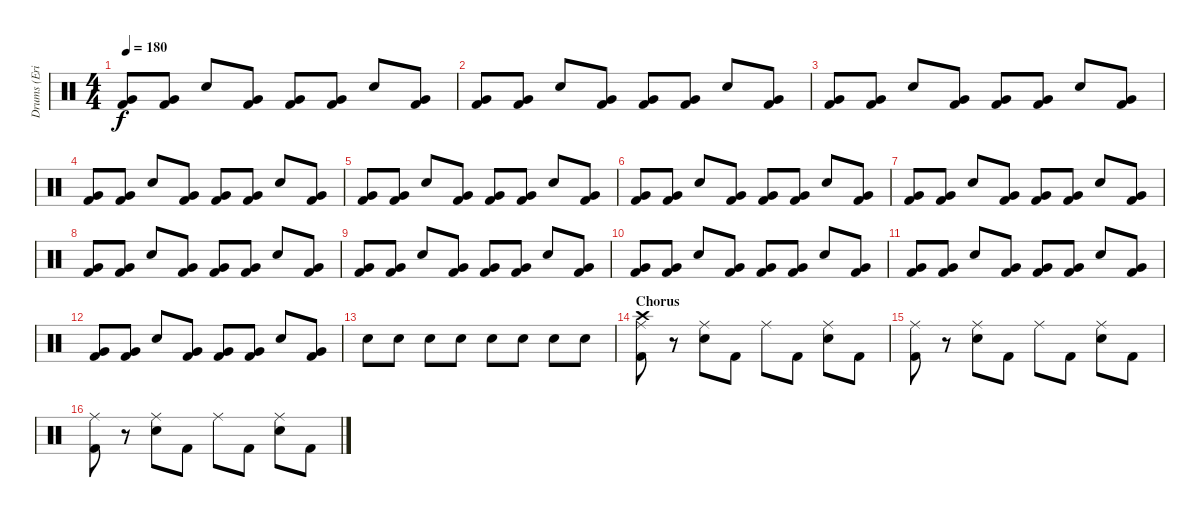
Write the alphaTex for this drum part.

\track ("Drums (Eric Young)" "Drums (Eri") {instrument percussion}
\staff {score}
\articulation defaults
\ts (4 4)
\tempo 180
\clef neutral
\ks c
("Very Low Tom (hit)" "Kick (hit) 2").8{dy f} ("Very Low Tom (hit)" "Kick (hit) 2").8 "Snare (hit) 2".8 ("Very Low Tom (hit)" "Kick (hit) 2").8 ("Very Low Tom (hit)" "Kick (hit) 2").8 ("Very Low Tom (hit)" "Kick (hit) 2").8 "Snare (hit) 2".8 ("Very Low Tom (hit)" "Kick (hit) 2").8 |
("Very Low Tom (hit)" "Kick (hit) 2").8 ("Very Low Tom (hit)" "Kick (hit) 2").8 "Snare (hit) 2".8 ("Very Low Tom (hit)" "Kick (hit) 2").8 ("Very Low Tom (hit)" "Kick (hit) 2").8 ("Very Low Tom (hit)" "Kick (hit) 2").8 "Snare (hit) 2".8 ("Very Low Tom (hit)" "Kick (hit) 2").8 |
("Very Low Tom (hit)" "Kick (hit) 2").8 ("Very Low Tom (hit)" "Kick (hit) 2").8 "Snare (hit) 2".8 ("Very Low Tom (hit)" "Kick (hit) 2").8 ("Very Low Tom (hit)" "Kick (hit) 2").8 ("Very Low Tom (hit)" "Kick (hit) 2").8 "Snare (hit) 2".8 ("Very Low Tom (hit)" "Kick (hit) 2").8 |
("Very Low Tom (hit)" "Kick (hit) 2").8 ("Very Low Tom (hit)" "Kick (hit) 2").8 "Snare (hit) 2".8 ("Very Low Tom (hit)" "Kick (hit) 2").8 ("Very Low Tom (hit)" "Kick (hit) 2").8 ("Very Low Tom (hit)" "Kick (hit) 2").8 "Snare (hit) 2".8 ("Very Low Tom (hit)" "Kick (hit) 2").8 |
("Very Low Tom (hit)" "Kick (hit) 2").8 ("Very Low Tom (hit)" "Kick (hit) 2").8 "Snare (hit) 2".8 ("Very Low Tom (hit)" "Kick (hit) 2").8 ("Very Low Tom (hit)" "Kick (hit) 2").8 ("Very Low Tom (hit)" "Kick (hit) 2").8 "Snare (hit) 2".8 ("Very Low Tom (hit)" "Kick (hit) 2").8 |
("Very Low Tom (hit)" "Kick (hit) 2").8 ("Very Low Tom (hit)" "Kick (hit) 2").8 "Snare (hit) 2".8 ("Very Low Tom (hit)" "Kick (hit) 2").8 ("Very Low Tom (hit)" "Kick (hit) 2").8 ("Very Low Tom (hit)" "Kick (hit) 2").8 "Snare (hit) 2".8 ("Very Low Tom (hit)" "Kick (hit) 2").8 |
("Very Low Tom (hit)" "Kick (hit) 2").8 ("Very Low Tom (hit)" "Kick (hit) 2").8 "Snare (hit) 2".8 ("Very Low Tom (hit)" "Kick (hit) 2").8 ("Very Low Tom (hit)" "Kick (hit) 2").8 ("Very Low Tom (hit)" "Kick (hit) 2").8 "Snare (hit) 2".8 ("Very Low Tom (hit)" "Kick (hit) 2").8 |
("Very Low Tom (hit)" "Kick (hit) 2").8 ("Very Low Tom (hit)" "Kick (hit) 2").8 "Snare (hit) 2".8 ("Very Low Tom (hit)" "Kick (hit) 2").8 ("Very Low Tom (hit)" "Kick (hit) 2").8 ("Very Low Tom (hit)" "Kick (hit) 2").8 "Snare (hit) 2".8 ("Very Low Tom (hit)" "Kick (hit) 2").8 |
("Very Low Tom (hit)" "Kick (hit) 2").8 ("Very Low Tom (hit)" "Kick (hit) 2").8 "Snare (hit) 2".8 ("Very Low Tom (hit)" "Kick (hit) 2").8 ("Very Low Tom (hit)" "Kick (hit) 2").8 ("Very Low Tom (hit)" "Kick (hit) 2").8 "Snare (hit) 2".8 ("Very Low Tom (hit)" "Kick (hit) 2").8 |
("Very Low Tom (hit)" "Kick (hit) 2").8 ("Very Low Tom (hit)" "Kick (hit) 2").8 "Snare (hit) 2".8 ("Very Low Tom (hit)" "Kick (hit) 2").8 ("Very Low Tom (hit)" "Kick (hit) 2").8 ("Very Low Tom (hit)" "Kick (hit) 2").8 "Snare (hit) 2".8 ("Very Low Tom (hit)" "Kick (hit) 2").8 |
("Very Low Tom (hit)" "Kick (hit) 2").8 ("Very Low Tom (hit)" "Kick (hit) 2").8 "Snare (hit) 2".8 ("Very Low Tom (hit)" "Kick (hit) 2").8 ("Very Low Tom (hit)" "Kick (hit) 2").8 ("Very Low Tom (hit)" "Kick (hit) 2").8 "Snare (hit) 2".8 ("Very Low Tom (hit)" "Kick (hit) 2").8 |
("Very Low Tom (hit)" "Kick (hit) 2").8 ("Very Low Tom (hit)" "Kick (hit) 2").8 "Snare (hit) 2".8 ("Very Low Tom (hit)" "Kick (hit) 2").8 ("Very Low Tom (hit)" "Kick (hit) 2").8 ("Very Low Tom (hit)" "Kick (hit) 2").8 "Snare (hit) 2".8 ("Very Low Tom (hit)" "Kick (hit) 2").8 |
"Snare (hit) 2".8 "Snare (hit) 2".8 "Snare (hit) 2".8 "Snare (hit) 2".8 "Snare (hit) 2".8 "Snare (hit) 2".8 "Snare (hit) 2".8 "Snare (hit) 2".8 |
\section ("" "Chorus")
("Crash high (hit)" "Ride (middle)" "Kick (hit) 2").8 r.8 ("Ride (middle)" "Snare (hit) 2").8 "Kick (hit) 2".8 "Ride (middle)".8 "Kick (hit) 2".8 ("Ride (middle)" "Snare (hit) 2").8 "Kick (hit) 2".8 |
("Ride (middle)" "Kick (hit) 2").8 r.8 ("Ride (middle)" "Snare (hit) 2").8 "Kick (hit) 2".8 "Ride (middle)".8 "Kick (hit) 2".8 ("Ride (middle)" "Snare (hit) 2").8 "Kick (hit) 2".8 |
("Ride (middle)" "Kick (hit) 2").8 r.8 ("Ride (middle)" "Snare (hit) 2").8 "Kick (hit) 2".8 "Ride (middle)".8 "Kick (hit) 2".8 ("Ride (middle)" "Snare (hit) 2").8 "Kick (hit) 2".8
